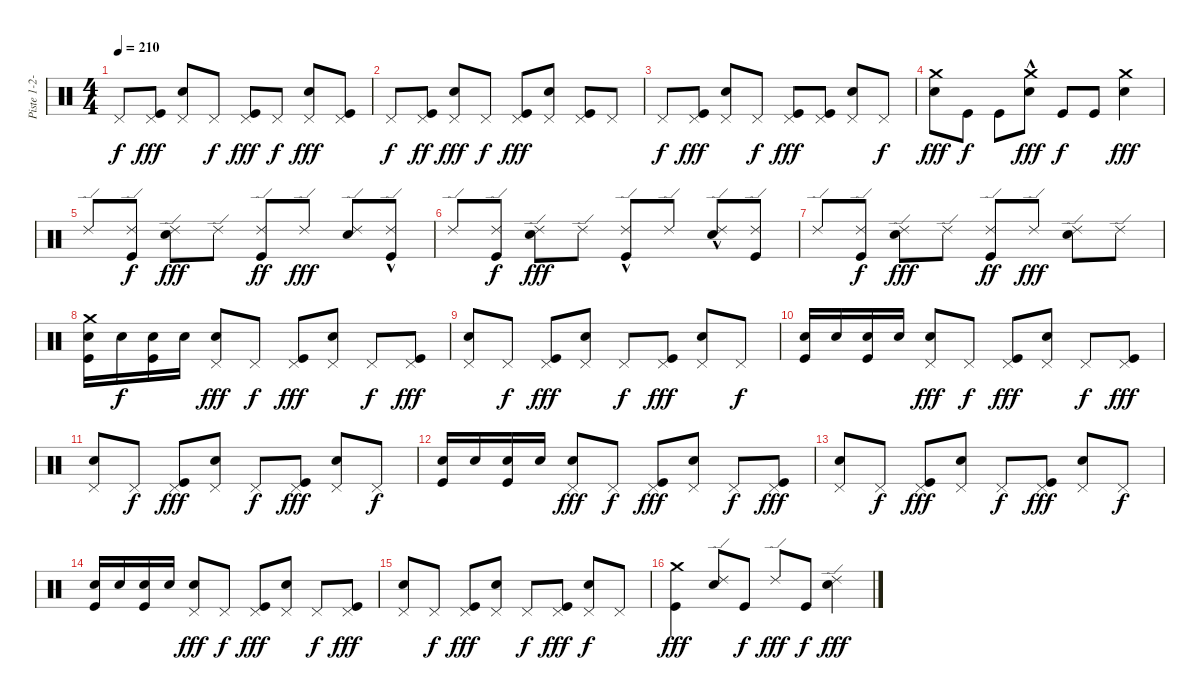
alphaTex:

\track ("Piste 1-2-3-4" "Piste 1-2-") {instrument percussion}
\staff {score}
\articulation defaults
\ts (4 4)
\tempo 210
\clef neutral
\ks c "Pedal Hi-Hat (hit)".8{dy f}
("Pedal Hi-Hat (hit)" "Kick (hit)").8{dy fff} ("Pedal Hi-Hat (hit)" "Snare (hit) 2").8 "Pedal Hi-Hat (hit)".8{dy f} ("Pedal Hi-Hat (hit)" "Kick (hit)").8{dy fff} "Pedal Hi-Hat (hit)".8{dy f} ("Pedal Hi-Hat (hit)" "Snare (hit) 2").8{dy fff} ("Pedal Hi-Hat (hit)" "Kick (hit)").8 |
"Pedal Hi-Hat (hit)".8{dy f} ("Pedal Hi-Hat (hit)" "Kick (hit)").8{dy ff} ("Pedal Hi-Hat (hit)" "Snare (hit) 2").8{dy fff} "Pedal Hi-Hat (hit)".8{dy f} ("Pedal Hi-Hat (hit)" "Kick (hit)").8{dy fff} ("Pedal Hi-Hat (hit)" "Snare (hit) 2").8 ("Pedal Hi-Hat (hit)" "Kick (hit)").8 "Pedal Hi-Hat (hit)".8 |
"Pedal Hi-Hat (hit)".8{dy f} ("Pedal Hi-Hat (hit)" "Kick (hit)").8{dy fff} ("Pedal Hi-Hat (hit)" "Snare (hit) 2").8 "Pedal Hi-Hat (hit)".8{dy f} ("Pedal Hi-Hat (hit)" "Kick (hit)").8{dy fff} ("Pedal Hi-Hat (hit)" "Kick (hit)").8 ("Pedal Hi-Hat (hit)" "Snare (hit) 2").8 "Pedal Hi-Hat (hit)".8{dy f} |
("Crash medium (hit)" "Snare (hit) 2").8{dy fff} "Kick (hit)".8{dy f} "Kick (hit)".8 ("Crash medium (hit)"{hac} "Snare (hit) 2").8{dy fff} "Kick (hit)".8{dy f} "Kick (hit)".8 ("Crash medium (hit)" "Snare (hit) 2").4{dy fff} |
"Ride (edge) 2".8 ("Ride (edge) 2" "Kick (hit)").8{dy f} ("Ride (edge) 2" "Snare (hit) 2").8{dy fff} "Ride (edge) 2".8 ("Ride (edge) 2" "Kick (hit)").8{dy ff} "Ride (edge) 2".8{dy fff} ("Ride (edge) 2" "Snare (hit) 2").8 ("Ride (edge) 2"{hac} "Kick (hit)").8 |
"Ride (edge) 2".8 ("Ride (edge) 2" "Kick (hit)").8{dy f} ("Ride (edge) 2" "Snare (hit) 2").8{dy fff} "Ride (edge) 2".8 ("Ride (edge) 2"{hac} "Kick (hit)").8 "Ride (edge) 2".8 ("Ride (edge) 2"{hac} "Snare (hit) 2").8 ("Ride (edge) 2" "Kick (hit)").8 |
"Ride (edge) 2".8 ("Ride (edge) 2" "Kick (hit)").8{dy f} ("Ride (edge) 2" "Snare (hit) 2").8{dy fff} "Ride (edge) 2".8 ("Ride (edge) 2" "Kick (hit)").8{dy ff} "Ride (edge) 2".8{dy fff} ("Ride (edge) 2" "Snare (hit) 2").8 "Ride (edge) 2".8 |
("Crash medium (hit)" "Snare (hit) 2" "Kick (hit)").16 "Snare (hit) 2".16{dy f} ("Snare (hit) 2" "Kick (hit)").16 "Snare (hit) 2".16 ("Pedal Hi-Hat (hit)" "Snare (hit) 2").8{dy fff} "Pedal Hi-Hat (hit)".8{dy f} ("Pedal Hi-Hat (hit)" "Kick (hit)").8{dy fff} ("Pedal Hi-Hat (hit)" "Snare (hit) 2").8 "Pedal Hi-Hat (hit)".8{dy f} ("Pedal Hi-Hat (hit)" "Kick (hit)").8{dy fff} |
("Pedal Hi-Hat (hit)" "Snare (hit) 2").8 "Pedal Hi-Hat (hit)".8{dy f} ("Pedal Hi-Hat (hit)" "Kick (hit)").8{dy fff} ("Pedal Hi-Hat (hit)" "Snare (hit) 2").8 "Pedal Hi-Hat (hit)".8{dy f} ("Pedal Hi-Hat (hit)" "Kick (hit)").8{dy fff} ("Pedal Hi-Hat (hit)" "Snare (hit) 2").8 "Pedal Hi-Hat (hit)".8{dy f} |
("Snare (hit) 2" "Kick (hit)").16 "Snare (hit) 2".16 ("Snare (hit) 2" "Kick (hit)").16 "Snare (hit) 2".16 ("Pedal Hi-Hat (hit)" "Snare (hit) 2").8{dy fff} "Pedal Hi-Hat (hit)".8{dy f} ("Pedal Hi-Hat (hit)" "Kick (hit)").8{dy fff} ("Pedal Hi-Hat (hit)" "Snare (hit) 2").8 "Pedal Hi-Hat (hit)".8{dy f} ("Pedal Hi-Hat (hit)" "Kick (hit)").8{dy fff} |
("Pedal Hi-Hat (hit)" "Snare (hit) 2").8 "Pedal Hi-Hat (hit)".8{dy f} ("Pedal Hi-Hat (hit)" "Kick (hit)").8{dy fff} ("Pedal Hi-Hat (hit)" "Snare (hit) 2").8 "Pedal Hi-Hat (hit)".8{dy f} ("Pedal Hi-Hat (hit)" "Kick (hit)").8{dy fff} ("Pedal Hi-Hat (hit)" "Snare (hit) 2").8 "Pedal Hi-Hat (hit)".8{dy f} |
("Snare (hit) 2" "Kick (hit)").16 "Snare (hit) 2".16 ("Snare (hit) 2" "Kick (hit)").16 "Snare (hit) 2".16 ("Pedal Hi-Hat (hit)" "Snare (hit) 2").8{dy fff} "Pedal Hi-Hat (hit)".8{dy f} ("Pedal Hi-Hat (hit)" "Kick (hit)").8{dy fff} ("Pedal Hi-Hat (hit)" "Snare (hit) 2").8 "Pedal Hi-Hat (hit)".8{dy f} ("Pedal Hi-Hat (hit)" "Kick (hit)").8{dy fff} |
("Pedal Hi-Hat (hit)" "Snare (hit) 2").8 "Pedal Hi-Hat (hit)".8{dy f} ("Pedal Hi-Hat (hit)" "Kick (hit)").8{dy fff} ("Pedal Hi-Hat (hit)" "Snare (hit) 2").8 "Pedal Hi-Hat (hit)".8{dy f} ("Pedal Hi-Hat (hit)" "Kick (hit)").8{dy fff} ("Pedal Hi-Hat (hit)" "Snare (hit) 2").8 "Pedal Hi-Hat (hit)".8{dy f} |
("Snare (hit) 2" "Kick (hit)").16 "Snare (hit) 2".16 ("Snare (hit) 2" "Kick (hit)").16 "Snare (hit) 2".16 ("Pedal Hi-Hat (hit)" "Snare (hit) 2").8{dy fff} "Pedal Hi-Hat (hit)".8{dy f} ("Pedal Hi-Hat (hit)" "Kick (hit)").8{dy fff} ("Pedal Hi-Hat (hit)" "Snare (hit) 2").8 "Pedal Hi-Hat (hit)".8{dy f} ("Pedal Hi-Hat (hit)" "Kick (hit)").8{dy fff} |
("Pedal Hi-Hat (hit)" "Snare (hit) 2").8 "Pedal Hi-Hat (hit)".8{dy f} ("Pedal Hi-Hat (hit)" "Kick (hit)").8{dy fff} ("Pedal Hi-Hat (hit)" "Snare (hit) 2").8 "Pedal Hi-Hat (hit)".8{dy f} ("Pedal Hi-Hat (hit)" "Kick (hit)").8{dy fff} ("Pedal Hi-Hat (hit)" "Snare (hit) 2").8{dy f} "Pedal Hi-Hat (hit)".8 |
("Crash medium (hit)" "Kick (hit)").4{dy fff} ("Ride (edge) 2" "Snare (hit) 2").8 "Kick (hit)".8{dy f} "Ride (edge) 2".8{dy fff} "Kick (hit)".8{dy f} ("Ride (edge) 2" "Snare (hit) 2").4{dy fff}
